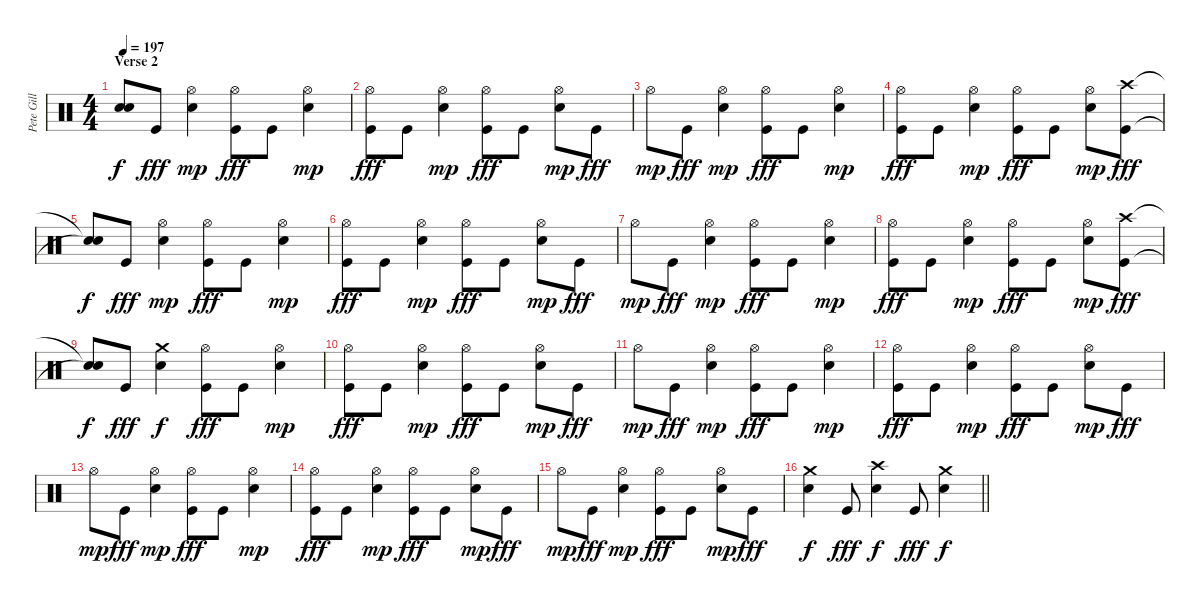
\track ("Pete Gill" "Pete Gill") {instrument percussion}
\staff {score}
\articulation defaults
\ts (4 4)
\section ("" "Verse 2")
\tempo 197
\clef neutral
\ks c
("Snare (hit)"{t} "Snare (hit)"{t}).8{dy f} "Kick (hit)".8{dy fff} ("Hi-Hat (open)" "Electric Snare (hit)").4{dy mp} ("Hi-Hat (open)" "Kick (hit)").8{dy fff} "Kick (hit)".8 ("Hi-Hat (open)" "Electric Snare (hit)").4{dy mp} |
("Hi-Hat (open)" "Kick (hit)").8{dy fff} "Kick (hit)".8 ("Hi-Hat (open)" "Electric Snare (hit)").4{dy mp} ("Hi-Hat (open)" "Kick (hit)").8{dy fff} "Kick (hit)".8 ("Hi-Hat (open)" "Electric Snare (hit)").8{dy mp} "Kick (hit)".8{dy fff} |
"Hi-Hat (open)".8{dy mp} "Kick (hit)".8{dy fff} ("Hi-Hat (open)" "Electric Snare (hit)").4{dy mp} ("Hi-Hat (open)" "Kick (hit)").8{dy fff} "Kick (hit)".8 ("Hi-Hat (open)" "Electric Snare (hit)").4{dy mp} |
("Hi-Hat (open)" "Kick (hit)").8{dy fff} "Kick (hit)".8 ("Hi-Hat (open)" "Electric Snare (hit)").4{dy mp} ("Hi-Hat (open)" "Kick (hit)").8{dy fff} "Kick (hit)".8 ("Hi-Hat (open)" "Electric Snare (hit)").8{dy mp} ("Crash high (hit)" "Kick (hit)").8{dy fff} |
("Snare (hit)"{t} "Snare (hit)"{t}).8{dy f} "Kick (hit)".8{dy fff} ("Hi-Hat (open)" "Electric Snare (hit)").4{dy mp} ("Hi-Hat (open)" "Kick (hit)").8{dy fff} "Kick (hit)".8 ("Hi-Hat (open)" "Electric Snare (hit)").4{dy mp} |
("Hi-Hat (open)" "Kick (hit)").8{dy fff} "Kick (hit)".8 ("Hi-Hat (open)" "Electric Snare (hit)").4{dy mp} ("Hi-Hat (open)" "Kick (hit)").8{dy fff} "Kick (hit)".8 ("Hi-Hat (open)" "Electric Snare (hit)").8{dy mp} "Kick (hit)".8{dy fff} |
"Hi-Hat (open)".8{dy mp} "Kick (hit)".8{dy fff} ("Hi-Hat (open)" "Electric Snare (hit)").4{dy mp} ("Hi-Hat (open)" "Kick (hit)").8{dy fff} "Kick (hit)".8 ("Hi-Hat (open)" "Electric Snare (hit)").4{dy mp} |
("Hi-Hat (open)" "Kick (hit)").8{dy fff} "Kick (hit)".8 ("Hi-Hat (open)" "Electric Snare (hit)").4{dy mp} ("Hi-Hat (open)" "Kick (hit)").8{dy fff} "Kick (hit)".8 ("Hi-Hat (open)" "Electric Snare (hit)").8{dy mp} ("Crash high (hit)" "Kick (hit)").8{dy fff} |
("Snare (hit)"{t} "Snare (hit)"{t}).8{dy f} "Kick (hit)".8{dy fff} ("Crash medium (hit)" "Electric Snare (hit)").4{dy f} ("Hi-Hat (open)" "Kick (hit)").8{dy fff} "Kick (hit)".8 ("Hi-Hat (open)" "Electric Snare (hit)").4{dy mp} |
("Hi-Hat (open)" "Kick (hit)").8{dy fff} "Kick (hit)".8 ("Hi-Hat (open)" "Electric Snare (hit)").4{dy mp} ("Hi-Hat (open)" "Kick (hit)").8{dy fff} "Kick (hit)".8 ("Hi-Hat (open)" "Electric Snare (hit)").8{dy mp} "Kick (hit)".8{dy fff} |
"Hi-Hat (open)".8{dy mp} "Kick (hit)".8{dy fff} ("Hi-Hat (open)" "Electric Snare (hit)").4{dy mp} ("Hi-Hat (open)" "Kick (hit)").8{dy fff} "Kick (hit)".8 ("Hi-Hat (open)" "Electric Snare (hit)").4{dy mp} |
("Hi-Hat (open)" "Kick (hit)").8{dy fff} "Kick (hit)".8 ("Hi-Hat (open)" "Electric Snare (hit)").4{dy mp} ("Hi-Hat (open)" "Kick (hit)").8{dy fff} "Kick (hit)".8 ("Hi-Hat (open)" "Electric Snare (hit)").8{dy mp} "Kick (hit)".8{dy fff} |
"Hi-Hat (open)".8{dy mp} "Kick (hit)".8{dy fff} ("Hi-Hat (open)" "Electric Snare (hit)").4{dy mp} ("Hi-Hat (open)" "Kick (hit)").8{dy fff} "Kick (hit)".8 ("Hi-Hat (open)" "Electric Snare (hit)").4{dy mp} |
("Hi-Hat (open)" "Kick (hit)").8{dy fff} "Kick (hit)".8 ("Hi-Hat (open)" "Electric Snare (hit)").4{dy mp} ("Hi-Hat (open)" "Kick (hit)").8{dy fff} "Kick (hit)".8 ("Hi-Hat (open)" "Electric Snare (hit)").8{dy mp} "Kick (hit)".8{dy fff} |
"Hi-Hat (open)".8{dy mp} "Kick (hit)".8{dy fff} ("Hi-Hat (open)" "Electric Snare (hit)").4{dy mp} ("Hi-Hat (open)" "Kick (hit)").8{dy fff} "Kick (hit)".8 ("Hi-Hat (open)" "Electric Snare (hit)").8{dy mp} "Kick (hit)".8{dy fff} |
\barLineRight lightlight
("Crash medium (hit)" "Electric Snare (hit)").4{dy f} "Kick (hit)".8{dy fff} ("Crash high (hit)" "Electric Snare (hit)").4{dy f} "Kick (hit)".8{dy fff} ("Crash medium (hit)" "Electric Snare (hit)").4{dy f}
